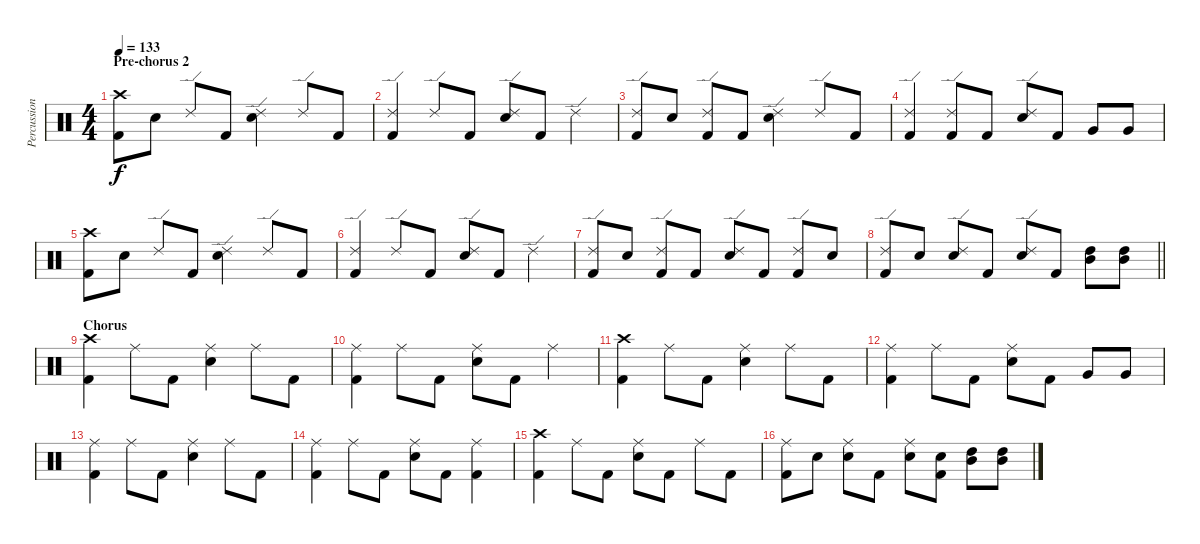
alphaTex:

\track ("Percussion" "Percussion") {instrument percussion}
\staff {score}
\articulation defaults
\ts (4 4)
\section ("" "Pre-chorus 2")
\tempo 133
\clef neutral
\ks c
("Crash high (hit)" "Kick (hit) 2").8{dy f} "Electric Snare (hit)".8 "Ride (edge) 2".8 "Kick (hit) 2".8 ("Ride (edge) 2" "Electric Snare (hit)").4 "Ride (edge) 2".8 "Kick (hit) 2".8 |
("Ride (edge) 2" "Kick (hit) 2").4 "Ride (edge) 2".8 "Kick (hit) 2".8 ("Ride (edge) 2" "Electric Snare (hit)").8 "Kick (hit) 2".8 "Ride (edge) 2".4 |
("Ride (edge) 2" "Kick (hit) 2").8 "Electric Snare (hit)".8 ("Ride (edge) 2" "Kick (hit) 2").8 "Kick (hit) 2".8 ("Ride (edge) 2" "Electric Snare (hit)").4 "Ride (edge) 2".8 "Kick (hit) 2".8 |
("Ride (edge) 2" "Kick (hit) 2").4 ("Ride (edge) 2" "Kick (hit) 2").8 "Kick (hit) 2".8 ("Ride (edge) 2" "Electric Snare (hit)").8 "Kick (hit) 2".8 "Very Low Tom (hit)".8 "Very Low Tom (hit)".8 |
("Crash high (hit)" "Kick (hit) 2").8 "Electric Snare (hit)".8 "Ride (edge) 2".8 "Kick (hit) 2".8 ("Ride (edge) 2" "Electric Snare (hit)").4 "Ride (edge) 2".8 "Kick (hit) 2".8 |
("Ride (edge) 2" "Kick (hit) 2").4 "Ride (edge) 2".8 "Kick (hit) 2".8 ("Ride (edge) 2" "Electric Snare (hit)").8 "Kick (hit) 2".8 "Ride (edge) 2".4 |
("Ride (edge) 2" "Kick (hit) 2").8 "Electric Snare (hit)".8 ("Ride (edge) 2" "Kick (hit) 2").8 "Kick (hit) 2".8 ("Ride (edge) 2" "Electric Snare (hit)").8 "Kick (hit) 2".8 ("Ride (edge) 2" "Kick (hit) 2").8 "Electric Snare (hit)".8 |
\barLineRight lightlight
("Ride (edge) 2" "Kick (hit) 2").8 "Electric Snare (hit)".8 ("Ride (edge) 2" "Electric Snare (hit)").8 "Kick (hit) 2".8 ("Ride (edge) 2" "Electric Snare (hit)").8 "Kick (hit) 2".8 ("Mid Tom (hit)" "High Tom (hit)").8 ("Mid Tom (hit)" "High Tom (hit)").8 |
\section ("" "Chorus")
("Crash high (hit)" "Kick (hit) 2").4 "Ride (middle)".8 "Kick (hit) 2".8 ("Ride (middle)" "Electric Snare (hit)").4 "Ride (middle)".8 "Kick (hit) 2".8 |
("Ride (middle)" "Kick (hit) 2").4 "Ride (middle)".8 "Kick (hit) 2".8 ("Ride (middle)" "Electric Snare (hit)").8 "Kick (hit) 2".8 "Ride (middle)".4 |
("Crash high (hit)" "Kick (hit) 2").4 "Ride (middle)".8 "Kick (hit) 2".8 ("Ride (middle)" "Electric Snare (hit)").4 "Ride (middle)".8 "Kick (hit) 2".8 |
("Ride (middle)" "Kick (hit) 2").4 "Ride (middle)".8 "Kick (hit) 2".8 ("Ride (middle)" "Electric Snare (hit)").8 "Kick (hit) 2".8 "Very Low Tom (hit)".8 "Very Low Tom (hit)".8 |
("Ride (middle)" "Kick (hit) 2").4 "Ride (middle)".8 "Kick (hit) 2".8 ("Ride (middle)" "Electric Snare (hit)").4 "Ride (middle)".8 "Kick (hit) 2".8 |
("Ride (middle)" "Kick (hit) 2").4 "Ride (middle)".8 "Kick (hit) 2".8 ("Ride (middle)" "Electric Snare (hit)").8 "Kick (hit) 2".8 ("Ride (middle)" "Kick (hit) 2").4 |
("Crash high (hit)" "Kick (hit) 2").4 "Ride (middle)".8 "Kick (hit) 2".8 ("Ride (middle)" "Electric Snare (hit)").8 "Kick (hit) 2".8 "Ride (middle)".8 "Kick (hit) 2".8 |
("Ride (middle)" "Kick (hit) 2").8 "Electric Snare (hit)".8 ("Ride (middle)" "Electric Snare (hit)").8 "Kick (hit) 2".8 ("Ride (middle)" "Electric Snare (hit)").8 ("Electric Snare (hit)" "Kick (hit) 2").8 ("Mid Tom (hit)" "High Tom (hit)").8 ("Mid Tom (hit)" "High Tom (hit)").8
